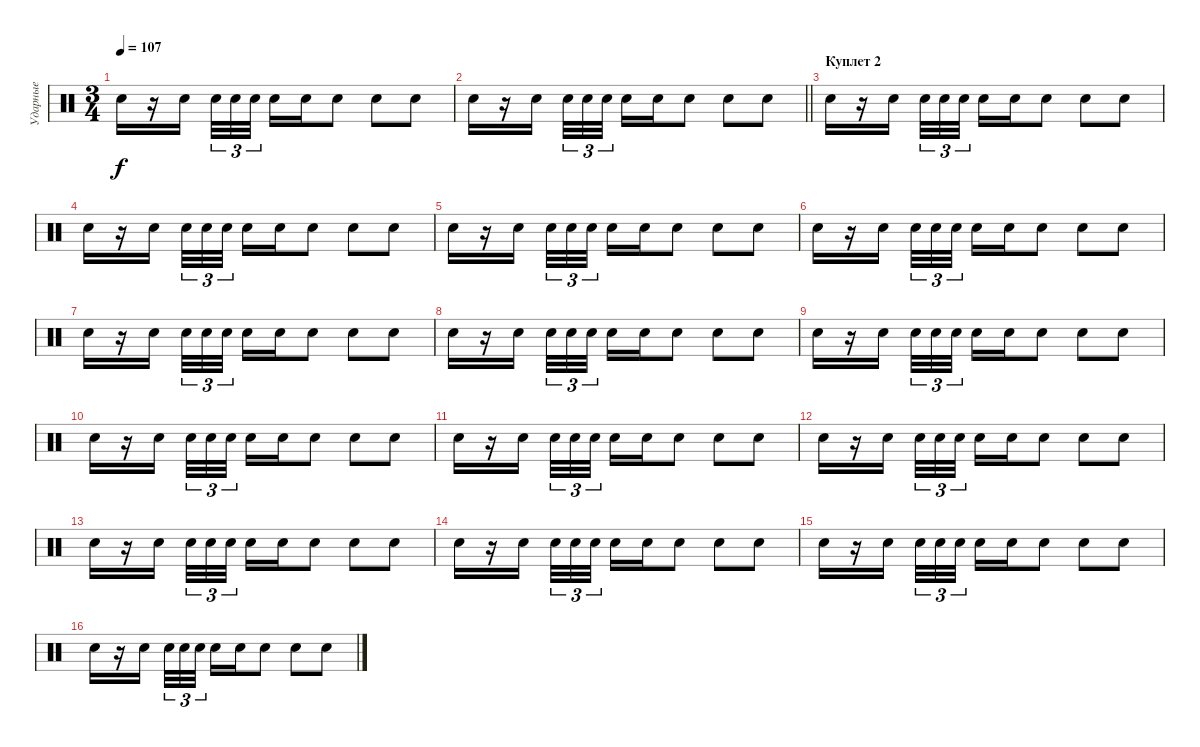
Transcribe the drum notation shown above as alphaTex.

\track ("Ударные" "Ударные") {instrument percussion}
\staff {score}
\articulation defaults
\ts (3 4)
\tempo 107
\clef neutral
\ks c "Snare (hit) 2".16{dy f}
r.16 "Snare (hit) 2".16{beam splitsecondary} "Snare (hit) 2".32{tu (3 2)} "Snare (hit) 2".32{tu (3 2)} "Snare (hit) 2".32{tu (3 2)} "Snare (hit) 2".16 "Snare (hit) 2".16 "Snare (hit) 2".8 "Snare (hit) 2".8 "Snare (hit) 2".8 |
\barLineRight lightlight "Snare (hit) 2".16
r.16 "Snare (hit) 2".16{beam splitsecondary} "Snare (hit) 2".32{tu (3 2)} "Snare (hit) 2".32{tu (3 2)} "Snare (hit) 2".32{tu (3 2)} "Snare (hit) 2".16 "Snare (hit) 2".16 "Snare (hit) 2".8 "Snare (hit) 2".8 "Snare (hit) 2".8 |
\section ("" "Куплет 2")
"Snare (hit) 2".16{volume 6} r.16 "Snare (hit) 2".16{beam splitsecondary} "Snare (hit) 2".32{tu (3 2)} "Snare (hit) 2".32{tu (3 2)} "Snare (hit) 2".32{tu (3 2)} "Snare (hit) 2".16 "Snare (hit) 2".16 "Snare (hit) 2".8 "Snare (hit) 2".8 "Snare (hit) 2".8 |
"Snare (hit) 2".16 r.16 "Snare (hit) 2".16{beam splitsecondary} "Snare (hit) 2".32{tu (3 2)} "Snare (hit) 2".32{tu (3 2)} "Snare (hit) 2".32{tu (3 2)} "Snare (hit) 2".16 "Snare (hit) 2".16 "Snare (hit) 2".8 "Snare (hit) 2".8 "Snare (hit) 2".8 |
"Snare (hit) 2".16 r.16 "Snare (hit) 2".16{beam splitsecondary} "Snare (hit) 2".32{tu (3 2)} "Snare (hit) 2".32{tu (3 2)} "Snare (hit) 2".32{tu (3 2)} "Snare (hit) 2".16 "Snare (hit) 2".16 "Snare (hit) 2".8 "Snare (hit) 2".8 "Snare (hit) 2".8 |
"Snare (hit) 2".16 r.16 "Snare (hit) 2".16{beam splitsecondary} "Snare (hit) 2".32{tu (3 2)} "Snare (hit) 2".32{tu (3 2)} "Snare (hit) 2".32{tu (3 2)} "Snare (hit) 2".16 "Snare (hit) 2".16 "Snare (hit) 2".8 "Snare (hit) 2".8 "Snare (hit) 2".8 |
"Snare (hit) 2".16 r.16 "Snare (hit) 2".16{beam splitsecondary} "Snare (hit) 2".32{tu (3 2)} "Snare (hit) 2".32{tu (3 2)} "Snare (hit) 2".32{tu (3 2)} "Snare (hit) 2".16 "Snare (hit) 2".16 "Snare (hit) 2".8 "Snare (hit) 2".8 "Snare (hit) 2".8 |
"Snare (hit) 2".16 r.16 "Snare (hit) 2".16{beam splitsecondary} "Snare (hit) 2".32{tu (3 2)} "Snare (hit) 2".32{tu (3 2)} "Snare (hit) 2".32{tu (3 2)} "Snare (hit) 2".16 "Snare (hit) 2".16 "Snare (hit) 2".8 "Snare (hit) 2".8 "Snare (hit) 2".8 |
"Snare (hit) 2".16 r.16 "Snare (hit) 2".16{beam splitsecondary} "Snare (hit) 2".32{tu (3 2)} "Snare (hit) 2".32{tu (3 2)} "Snare (hit) 2".32{tu (3 2)} "Snare (hit) 2".16 "Snare (hit) 2".16 "Snare (hit) 2".8 "Snare (hit) 2".8 "Snare (hit) 2".8 |
"Snare (hit) 2".16 r.16 "Snare (hit) 2".16{beam splitsecondary} "Snare (hit) 2".32{tu (3 2)} "Snare (hit) 2".32{tu (3 2)} "Snare (hit) 2".32{tu (3 2)} "Snare (hit) 2".16 "Snare (hit) 2".16 "Snare (hit) 2".8 "Snare (hit) 2".8 "Snare (hit) 2".8 |
"Snare (hit) 2".16 r.16 "Snare (hit) 2".16{beam splitsecondary} "Snare (hit) 2".32{tu (3 2)} "Snare (hit) 2".32{tu (3 2)} "Snare (hit) 2".32{tu (3 2)} "Snare (hit) 2".16 "Snare (hit) 2".16 "Snare (hit) 2".8 "Snare (hit) 2".8 "Snare (hit) 2".8 |
"Snare (hit) 2".16 r.16 "Snare (hit) 2".16{beam splitsecondary} "Snare (hit) 2".32{tu (3 2)} "Snare (hit) 2".32{tu (3 2)} "Snare (hit) 2".32{tu (3 2)} "Snare (hit) 2".16 "Snare (hit) 2".16 "Snare (hit) 2".8 "Snare (hit) 2".8 "Snare (hit) 2".8 |
"Snare (hit) 2".16 r.16 "Snare (hit) 2".16{beam splitsecondary} "Snare (hit) 2".32{tu (3 2)} "Snare (hit) 2".32{tu (3 2)} "Snare (hit) 2".32{tu (3 2)} "Snare (hit) 2".16 "Snare (hit) 2".16 "Snare (hit) 2".8 "Snare (hit) 2".8 "Snare (hit) 2".8 |
"Snare (hit) 2".16 r.16 "Snare (hit) 2".16{beam splitsecondary} "Snare (hit) 2".32{tu (3 2)} "Snare (hit) 2".32{tu (3 2)} "Snare (hit) 2".32{tu (3 2)} "Snare (hit) 2".16 "Snare (hit) 2".16 "Snare (hit) 2".8 "Snare (hit) 2".8 "Snare (hit) 2".8 |
"Snare (hit) 2".16 r.16 "Snare (hit) 2".16{beam splitsecondary} "Snare (hit) 2".32{tu (3 2)} "Snare (hit) 2".32{tu (3 2)} "Snare (hit) 2".32{tu (3 2)} "Snare (hit) 2".16 "Snare (hit) 2".16 "Snare (hit) 2".8 "Snare (hit) 2".8 "Snare (hit) 2".8 |
"Snare (hit) 2".16 r.16 "Snare (hit) 2".16{beam splitsecondary} "Snare (hit) 2".32{tu (3 2)} "Snare (hit) 2".32{tu (3 2)} "Snare (hit) 2".32{tu (3 2)} "Snare (hit) 2".16 "Snare (hit) 2".16 "Snare (hit) 2".8 "Snare (hit) 2".8 "Snare (hit) 2".8
